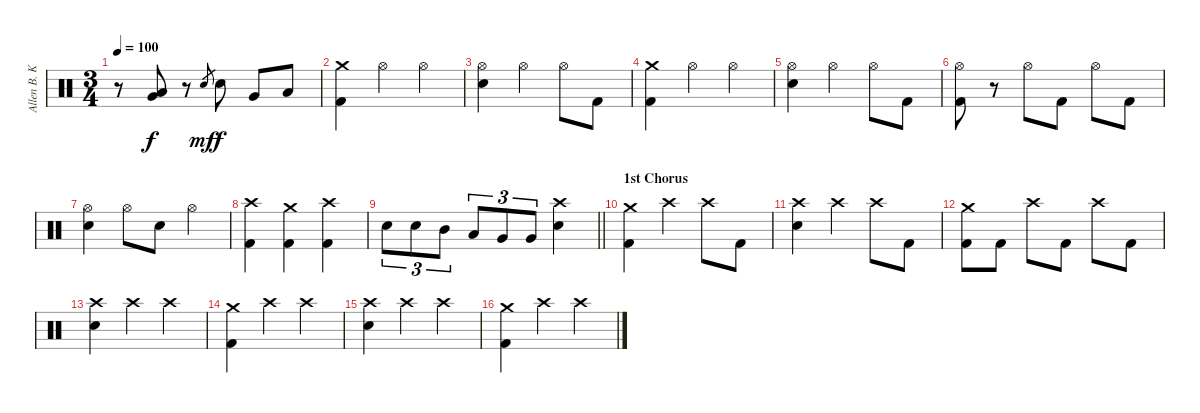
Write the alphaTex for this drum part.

\track ("Allen B. Konstanz (Drums)" "Allen B. K") {instrument percussion}
\staff {score}
\articulation defaults
\ts (3 4)
\tempo 100
\clef neutral
\ks c
r.8{dy f} ("Low Tom (hit)" "Very Low Tom (hit)").8 r.8 "Snare (hit) 2".8{gr dy mf} "Snare (hit) 2".8{dy f} "Very Low Tom (hit)".8 "Low Floor Tom (hit)".8 |
("Crash medium (hit)" "Kick (hit) 2").4 "Hi-Hat (open)".4 "Hi-Hat (open)".4 |
("Hi-Hat (open)" "Snare (hit) 2").4 "Hi-Hat (open)".4 "Hi-Hat (open)".8 "Kick (hit) 2".8 |
("Crash medium (hit)" "Kick (hit) 2").4 "Hi-Hat (open)".4 "Hi-Hat (open)".4 |
("Hi-Hat (open)" "Snare (hit) 2").4 "Hi-Hat (open)".4 "Hi-Hat (open)".8 "Kick (hit) 2".8 |
("Hi-Hat (open)" "Kick (hit) 2").8 r.8 "Hi-Hat (open)".8 "Kick (hit) 2".8 "Hi-Hat (open)".8 "Kick (hit) 2".8 |
("Hi-Hat (open)" "Snare (hit) 2").4 "Hi-Hat (open)".8 "Snare (hit) 2".8 "Hi-Hat (open)".4 |
("Crash high (hit)" "Kick (hit) 2").4 ("Crash medium (hit)" "Kick (hit) 2").4 ("Crash high (hit)" "Kick (hit) 2").4 |
\barLineRight lightlight "Snare (hit) 2".8{tu (3 2)} "Snare (hit) 2".8{tu (3 2)} "Mid Tom (hit)".8{tu (3 2)} "Low Tom (hit)".8{tu (3 2)} "Very Low Tom (hit)".8{tu (3 2)} "Very Low Tom (hit)".8{tu (3 2)}
("Crash high (hit)" "Snare (hit) 2").4 |
\section ("" "1st Chorus")
("Crash medium (hit)" "Kick (hit) 2").4 "Crash high (hit)".4 "Crash high (hit)".8 "Kick (hit) 2".8 |
("Crash high (hit)" "Snare (hit) 2").4 "Crash high (hit)".4 "Crash high (hit)".8 "Kick (hit) 2".8 |
("Crash medium (hit)" "Kick (hit) 2").8 "Kick (hit) 2".8 "Crash high (hit)".8 "Kick (hit) 2".8 "Crash high (hit)".8 "Kick (hit) 2".8 |
("Crash high (hit)" "Snare (hit) 2").4 "Crash high (hit)".4 "Crash high (hit)".4 |
("Crash medium (hit)" "Kick (hit) 2").4 "Crash high (hit)".4 "Crash high (hit)".4 |
("Crash high (hit)" "Snare (hit) 2").4 "Crash high (hit)".4 "Crash high (hit)".4 |
("Crash medium (hit)" "Kick (hit) 2").4 "Crash high (hit)".4 "Crash high (hit)".4
